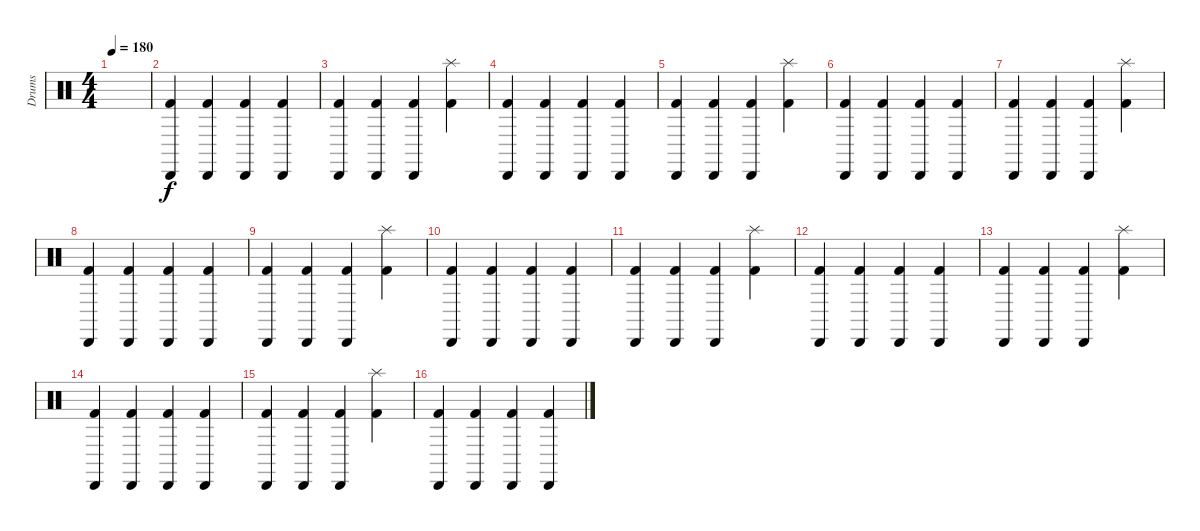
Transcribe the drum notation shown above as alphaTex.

\track ("Drums" "Drums") {instrument percussion}
\staff {score}
\articulation defaults
\ts (4 4)
\tempo 180
\clef neutral
\ks c
|
("Cabasa (hit)" "Kick (hit) 2").4 ("Cabasa (hit)" "Kick (hit) 2").4 ("Cabasa (hit)" "Kick (hit) 2").4 ("Cabasa (hit)" "Kick (hit) 2").4 |
("Cabasa (hit)" "Kick (hit) 2").4 ("Cabasa (hit)" "Kick (hit) 2").4 ("Cabasa (hit)" "Kick (hit) 2").4 ("Splash (hit)" "Kick (hit) 2").4 |
("Cabasa (hit)" "Kick (hit) 2").4 ("Cabasa (hit)" "Kick (hit) 2").4 ("Cabasa (hit)" "Kick (hit) 2").4 ("Cabasa (hit)" "Kick (hit) 2").4 |
("Cabasa (hit)" "Kick (hit) 2").4 ("Cabasa (hit)" "Kick (hit) 2").4 ("Cabasa (hit)" "Kick (hit) 2").4 ("Splash (hit)" "Kick (hit) 2").4 |
("Cabasa (hit)" "Kick (hit) 2").4 ("Cabasa (hit)" "Kick (hit) 2").4 ("Cabasa (hit)" "Kick (hit) 2").4 ("Cabasa (hit)" "Kick (hit) 2").4 |
("Cabasa (hit)" "Kick (hit) 2").4 ("Cabasa (hit)" "Kick (hit) 2").4 ("Cabasa (hit)" "Kick (hit) 2").4 ("Splash (hit)" "Kick (hit) 2").4 |
("Cabasa (hit)" "Kick (hit) 2").4 ("Cabasa (hit)" "Kick (hit) 2").4 ("Cabasa (hit)" "Kick (hit) 2").4 ("Cabasa (hit)" "Kick (hit) 2").4 |
("Cabasa (hit)" "Kick (hit) 2").4 ("Cabasa (hit)" "Kick (hit) 2").4 ("Cabasa (hit)" "Kick (hit) 2").4 ("Splash (hit)" "Kick (hit) 2").4 |
("Cabasa (hit)" "Kick (hit) 2").4 ("Cabasa (hit)" "Kick (hit) 2").4 ("Cabasa (hit)" "Kick (hit) 2").4 ("Cabasa (hit)" "Kick (hit) 2").4 |
("Cabasa (hit)" "Kick (hit) 2").4 ("Cabasa (hit)" "Kick (hit) 2").4 ("Cabasa (hit)" "Kick (hit) 2").4 ("Splash (hit)" "Kick (hit) 2").4 |
("Cabasa (hit)" "Kick (hit) 2").4 ("Cabasa (hit)" "Kick (hit) 2").4 ("Cabasa (hit)" "Kick (hit) 2").4 ("Cabasa (hit)" "Kick (hit) 2").4 |
("Cabasa (hit)" "Kick (hit) 2").4 ("Cabasa (hit)" "Kick (hit) 2").4 ("Cabasa (hit)" "Kick (hit) 2").4 ("Splash (hit)" "Kick (hit) 2").4 |
("Cabasa (hit)" "Kick (hit) 2").4 ("Cabasa (hit)" "Kick (hit) 2").4 ("Cabasa (hit)" "Kick (hit) 2").4 ("Cabasa (hit)" "Kick (hit) 2").4 |
("Cabasa (hit)" "Kick (hit) 2").4 ("Cabasa (hit)" "Kick (hit) 2").4 ("Cabasa (hit)" "Kick (hit) 2").4 ("Splash (hit)" "Kick (hit) 2").4 |
("Cabasa (hit)" "Kick (hit) 2").4 ("Cabasa (hit)" "Kick (hit) 2").4 ("Cabasa (hit)" "Kick (hit) 2").4 ("Cabasa (hit)" "Kick (hit) 2").4
